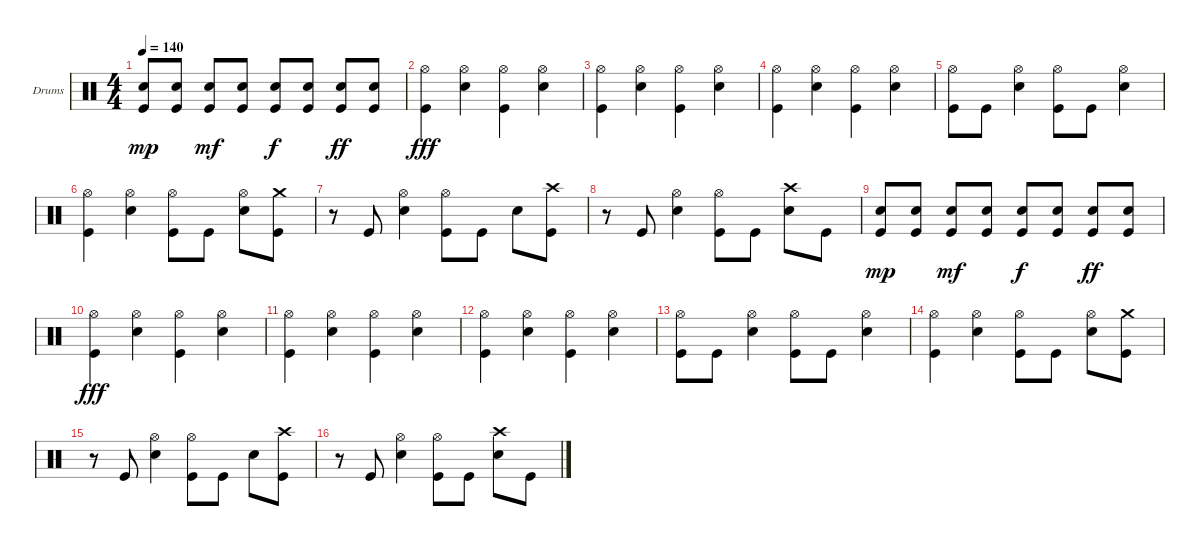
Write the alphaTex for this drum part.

\bracketExtendMode groupsimilarinstruments
\firstSystemTrackNameOrientation horizontal
\otherSystemsTrackNameOrientation horizontal
\track ("Drumkit" "Drums") {instrument percussion}
\staff {score}
\articulation defaults
\ts (4 4)
\tempo 140
\clef neutral
\ks c
("Kick (hit)" "Snare (hit) 2").8{dy mp} ("Kick (hit)" "Snare (hit) 2").8 ("Kick (hit)" "Snare (hit) 2").8{dy mf} ("Kick (hit)" "Snare (hit) 2").8 ("Kick (hit)" "Snare (hit) 2").8{dy f} ("Kick (hit)" "Snare (hit) 2").8 ("Kick (hit)" "Snare (hit) 2").8{dy ff} ("Kick (hit)" "Snare (hit) 2").8 |
("Kick (hit)" "Hi-Hat (open)").4{dy fff} ("Snare (hit) 2" "Hi-Hat (open)").4 ("Kick (hit)" "Hi-Hat (open)").4 ("Snare (hit) 2" "Hi-Hat (open)").4 |
("Kick (hit)" "Hi-Hat (open)").4 ("Snare (hit) 2" "Hi-Hat (open)").4 ("Kick (hit)" "Hi-Hat (open)").4 ("Snare (hit) 2" "Hi-Hat (open)").4 |
("Kick (hit)" "Hi-Hat (open)").4 ("Snare (hit) 2" "Hi-Hat (open)").4 ("Kick (hit)" "Hi-Hat (open)").4 ("Snare (hit) 2" "Hi-Hat (open)").4 |
("Kick (hit)" "Hi-Hat (open)").8 "Kick (hit)".8 ("Snare (hit) 2" "Hi-Hat (open)").4 ("Kick (hit)" "Hi-Hat (open)").8 "Kick (hit)".8 ("Snare (hit) 2" "Hi-Hat (open)").4 |
("Kick (hit)" "Hi-Hat (open)").4 ("Snare (hit) 2" "Hi-Hat (open)").4 ("Kick (hit)" "Hi-Hat (open)").8 "Kick (hit)".8 ("Snare (hit) 2" "Hi-Hat (open)").8 ("Kick (hit)" "Crash medium (hit)").8 |
r.8 "Kick (hit)".8 ("Snare (hit) 2" "Hi-Hat (open)").4 ("Kick (hit)" "Hi-Hat (open)").8 "Kick (hit)".8 "Snare (hit) 2".8 ("Kick (hit)" "Crash high (hit)").8 |
r.8 "Kick (hit)".8 ("Snare (hit) 2" "Hi-Hat (open)").4 ("Kick (hit)" "Hi-Hat (open)").8 "Kick (hit)".8 ("Snare (hit) 2" "Crash high (hit)").8 "Kick (hit)".8 |
("Kick (hit)" "Snare (hit) 2").8{dy mp} ("Kick (hit)" "Snare (hit) 2").8 ("Kick (hit)" "Snare (hit) 2").8{dy mf} ("Kick (hit)" "Snare (hit) 2").8 ("Kick (hit)" "Snare (hit) 2").8{dy f} ("Kick (hit)" "Snare (hit) 2").8 ("Kick (hit)" "Snare (hit) 2").8{dy ff} ("Kick (hit)" "Snare (hit) 2").8 |
("Kick (hit)" "Hi-Hat (open)").4{dy fff} ("Snare (hit) 2" "Hi-Hat (open)").4 ("Kick (hit)" "Hi-Hat (open)").4 ("Snare (hit) 2" "Hi-Hat (open)").4 |
("Kick (hit)" "Hi-Hat (open)").4 ("Snare (hit) 2" "Hi-Hat (open)").4 ("Kick (hit)" "Hi-Hat (open)").4 ("Snare (hit) 2" "Hi-Hat (open)").4 |
("Kick (hit)" "Hi-Hat (open)").4 ("Snare (hit) 2" "Hi-Hat (open)").4 ("Kick (hit)" "Hi-Hat (open)").4 ("Snare (hit) 2" "Hi-Hat (open)").4 |
("Kick (hit)" "Hi-Hat (open)").8 "Kick (hit)".8 ("Snare (hit) 2" "Hi-Hat (open)").4 ("Kick (hit)" "Hi-Hat (open)").8 "Kick (hit)".8 ("Snare (hit) 2" "Hi-Hat (open)").4 |
("Kick (hit)" "Hi-Hat (open)").4 ("Snare (hit) 2" "Hi-Hat (open)").4 ("Kick (hit)" "Hi-Hat (open)").8 "Kick (hit)".8 ("Snare (hit) 2" "Hi-Hat (open)").8 ("Kick (hit)" "Crash medium (hit)").8 |
r.8 "Kick (hit)".8 ("Snare (hit) 2" "Hi-Hat (open)").4 ("Kick (hit)" "Hi-Hat (open)").8 "Kick (hit)".8 "Snare (hit) 2".8 ("Kick (hit)" "Crash high (hit)").8 |
r.8 "Kick (hit)".8 ("Snare (hit) 2" "Hi-Hat (open)").4 ("Kick (hit)" "Hi-Hat (open)").8 "Kick (hit)".8 ("Snare (hit) 2" "Crash high (hit)").8 "Kick (hit)".8
